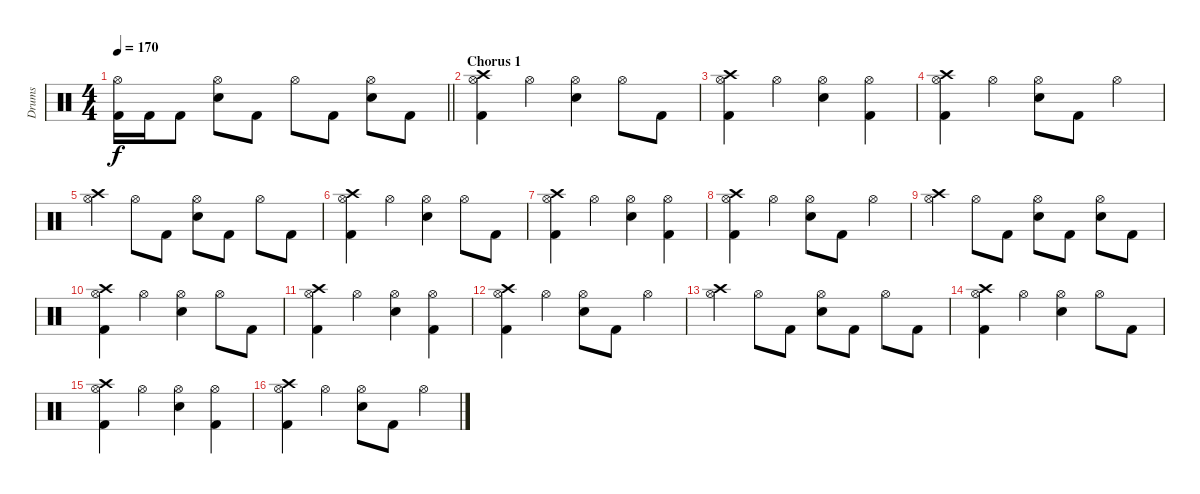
\track ("Drums" "Drums") {instrument percussion}
\staff {score}
\articulation defaults
\ts (4 4)
\tempo 170
\clef neutral
\barLineRight lightlight
\ks c
("Hi-Hat (open)" "Kick (hit) 2").16{dy f} "Kick (hit) 2".16 "Kick (hit) 2".8 ("Hi-Hat (open)" "Electric Snare (hit)").8 "Kick (hit) 2".8 "Hi-Hat (open)".8 "Kick (hit) 2".8 ("Hi-Hat (open)" "Electric Snare (hit)").8 "Kick (hit) 2".8 |
\section ("" "Chorus 1")
("Crash high (hit)" "Hi-Hat (open)" "Kick (hit) 2").4 "Hi-Hat (open)".4 ("Hi-Hat (open)" "Electric Snare (hit)").4 "Hi-Hat (open)".8 "Kick (hit) 2".8 |
("Crash high (hit)" "Hi-Hat (open)" "Kick (hit) 2").4 "Hi-Hat (open)".4 ("Hi-Hat (open)" "Electric Snare (hit)").4 ("Hi-Hat (open)" "Kick (hit) 2").4 |
("Crash high (hit)" "Hi-Hat (open)" "Kick (hit) 2").4 "Hi-Hat (open)".4 ("Hi-Hat (open)" "Electric Snare (hit)").8 "Kick (hit) 2".8 "Hi-Hat (open)".4 |
("Crash high (hit)" "Hi-Hat (open)").4 "Hi-Hat (open)".8 "Kick (hit) 2".8 ("Hi-Hat (open)" "Electric Snare (hit)").8 "Kick (hit) 2".8 "Hi-Hat (open)".8 "Kick (hit) 2".8 |
("Crash high (hit)" "Hi-Hat (open)" "Kick (hit) 2").4 "Hi-Hat (open)".4 ("Hi-Hat (open)" "Electric Snare (hit)").4 "Hi-Hat (open)".8 "Kick (hit) 2".8 |
("Crash high (hit)" "Hi-Hat (open)" "Kick (hit) 2").4 "Hi-Hat (open)".4 ("Hi-Hat (open)" "Electric Snare (hit)").4 ("Hi-Hat (open)" "Kick (hit) 2").4 |
("Crash high (hit)" "Hi-Hat (open)" "Kick (hit) 2").4 "Hi-Hat (open)".4 ("Hi-Hat (open)" "Electric Snare (hit)").8 "Kick (hit) 2".8 "Hi-Hat (open)".4 |
("Crash high (hit)" "Hi-Hat (open)").4 "Hi-Hat (open)".8 "Kick (hit) 2".8 ("Hi-Hat (open)" "Electric Snare (hit)").8 "Kick (hit) 2".8 ("Hi-Hat (open)" "Electric Snare (hit)").8 "Kick (hit) 2".8 |
("Crash high (hit)" "Hi-Hat (open)" "Kick (hit) 2").4 "Hi-Hat (open)".4 ("Hi-Hat (open)" "Electric Snare (hit)").4 "Hi-Hat (open)".8 "Kick (hit) 2".8 |
("Crash high (hit)" "Hi-Hat (open)" "Kick (hit) 2").4 "Hi-Hat (open)".4 ("Hi-Hat (open)" "Electric Snare (hit)").4 ("Hi-Hat (open)" "Kick (hit) 2").4 |
("Crash high (hit)" "Hi-Hat (open)" "Kick (hit) 2").4 "Hi-Hat (open)".4 ("Hi-Hat (open)" "Electric Snare (hit)").8 "Kick (hit) 2".8 "Hi-Hat (open)".4 |
("Crash high (hit)" "Hi-Hat (open)").4 "Hi-Hat (open)".8 "Kick (hit) 2".8 ("Hi-Hat (open)" "Electric Snare (hit)").8 "Kick (hit) 2".8 "Hi-Hat (open)".8 "Kick (hit) 2".8 |
("Crash high (hit)" "Hi-Hat (open)" "Kick (hit) 2").4 "Hi-Hat (open)".4 ("Hi-Hat (open)" "Electric Snare (hit)").4 "Hi-Hat (open)".8 "Kick (hit) 2".8 |
("Crash high (hit)" "Hi-Hat (open)" "Kick (hit) 2").4 "Hi-Hat (open)".4 ("Hi-Hat (open)" "Electric Snare (hit)").4 ("Hi-Hat (open)" "Kick (hit) 2").4 |
("Crash high (hit)" "Hi-Hat (open)" "Kick (hit) 2").4 "Hi-Hat (open)".4 ("Hi-Hat (open)" "Electric Snare (hit)").8 "Kick (hit) 2".8 "Hi-Hat (open)".4
